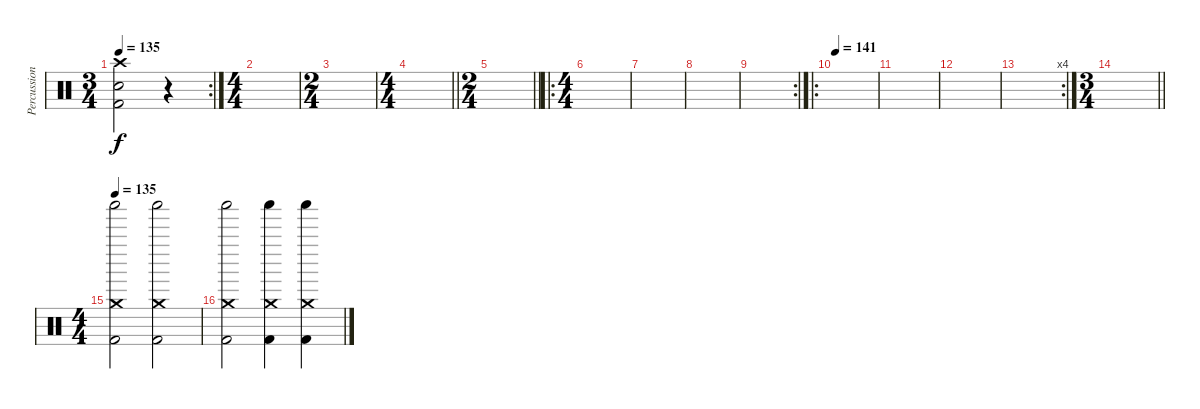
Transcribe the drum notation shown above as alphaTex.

\track ("Percussioni" "Percussion") {instrument percussion}
\staff {score}
\articulation defaults
\rc 2
\ts (3 4)
\tempo 135
\clef neutral
\ks c
("Crash high (hit)" "Kick (hit) 2" "Snare (hit) 2").2{dy f} r.4 |
\ts (4 4)
|
\ts (2 4)
|
\ts (4 4)
\barLineRight lightlight
|
\ts (2 4)
\barLineRight lightlight
|
\ro
\ts (4 4)
|
|
|
\rc 2
|
\ro
\tempo 141
|
|
|
\rc 4
|
\ts (3 4)
\barLineRight lightlight
|
\ts (4 4)
\tempo 135
("Kick (hit) 2" "Shaker (hit)" "Crash medium (hit)").2 ("Kick (hit) 2" "Shaker (hit)" "Crash medium (hit)").2 |
("Kick (hit) 2" "Shaker (hit)" "Crash medium (hit)").2 ("Kick (hit) 2" "Shaker (hit)" "Crash medium (hit)").4 ("Kick (hit) 2" "Shaker (hit)" "Crash medium (hit)").4
